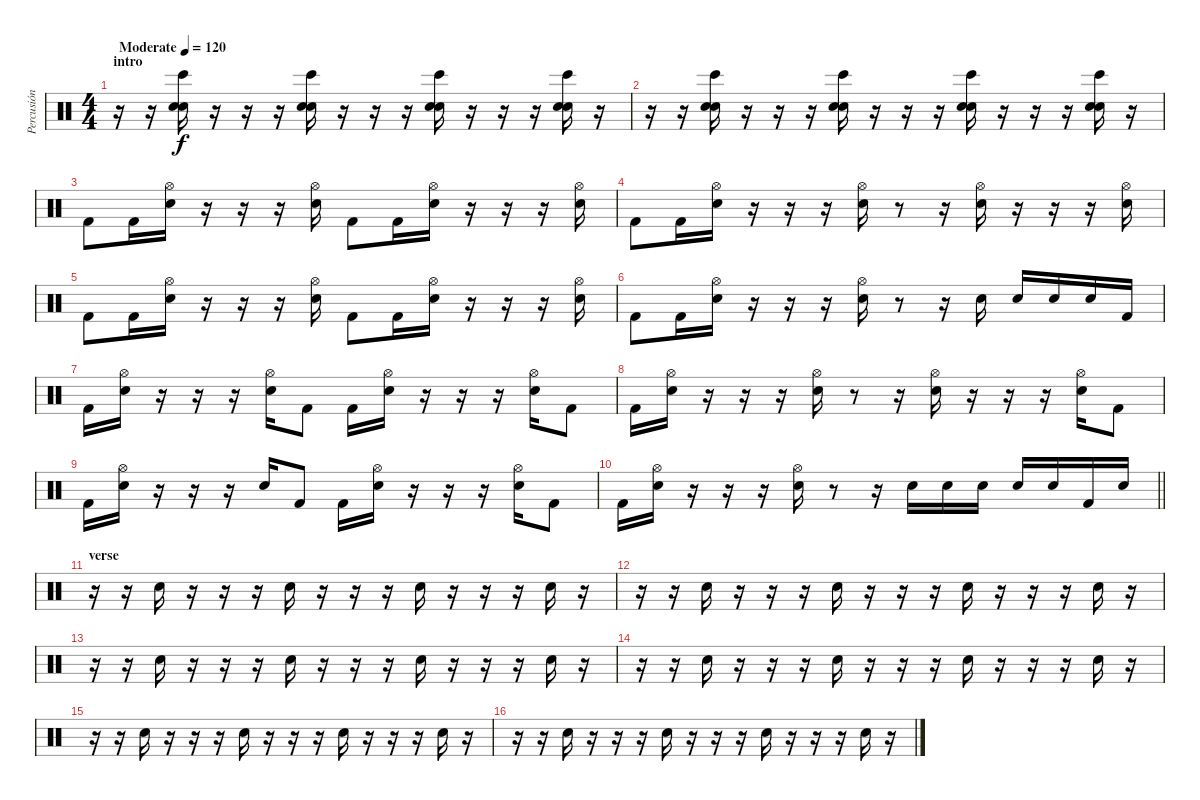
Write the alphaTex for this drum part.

\track ("Percusión" "Percusión") {instrument percussion}
\staff {score}
\articulation defaults
\ts (4 4)
\section ("" "intro")
\tempo (120 "Moderate")
\clef neutral
\ks c
r.16{dy f} r.16 ("Bongo High (hit)" "Hand Clap (hit)" "Electric Snare (hit)").16 r.16 r.16 r.16 ("Bongo High (hit)" "Hand Clap (hit)" "Electric Snare (hit)").16 r.16 r.16 r.16 ("Bongo High (hit)" "Hand Clap (hit)" "Electric Snare (hit)").16 r.16 r.16 r.16 ("Bongo High (hit)" "Hand Clap (hit)" "Electric Snare (hit)").16 r.16 |
r.16 r.16 ("Bongo High (hit)" "Hand Clap (hit)" "Electric Snare (hit)").16 r.16 r.16 r.16 ("Bongo High (hit)" "Hand Clap (hit)" "Electric Snare (hit)").16 r.16 r.16 r.16 ("Bongo High (hit)" "Hand Clap (hit)" "Electric Snare (hit)").16 r.16 r.16 r.16 ("Bongo High (hit)" "Hand Clap (hit)" "Electric Snare (hit)").16 r.16 |
"Kick (hit) 2".8 "Kick (hit) 2".16 ("Hi-Hat (open)" "Electric Snare (hit)").16 r.16 r.16 r.16 ("Hi-Hat (open)" "Electric Snare (hit)").16 "Kick (hit) 2".8 "Kick (hit) 2".16 ("Hi-Hat (open)" "Electric Snare (hit)").16 r.16 r.16 r.16 ("Hi-Hat (open)" "Electric Snare (hit)").16 |
"Kick (hit) 2".8 "Kick (hit) 2".16 ("Hi-Hat (open)" "Electric Snare (hit)").16 r.16 r.16 r.16 ("Hi-Hat (open)" "Electric Snare (hit)").16 r.8 r.16 ("Hi-Hat (open)" "Electric Snare (hit)").16 r.16 r.16 r.16 ("Hi-Hat (open)" "Electric Snare (hit)").16 |
"Kick (hit) 2".8 "Kick (hit) 2".16 ("Hi-Hat (open)" "Electric Snare (hit)").16 r.16 r.16 r.16 ("Hi-Hat (open)" "Electric Snare (hit)").16 "Kick (hit) 2".8 "Kick (hit) 2".16 ("Hi-Hat (open)" "Electric Snare (hit)").16 r.16 r.16 r.16 ("Hi-Hat (open)" "Electric Snare (hit)").16 |
"Kick (hit) 2".8 "Kick (hit) 2".16 ("Hi-Hat (open)" "Electric Snare (hit)").16 r.16 r.16 r.16 ("Hi-Hat (open)" "Electric Snare (hit)").16 r.8 r.16 "Electric Snare (hit)".16 "Electric Snare (hit)".16 "Electric Snare (hit)".16 "Electric Snare (hit)".16 "Kick (hit) 2".16 |
"Kick (hit) 2".16 ("Hi-Hat (open)" "Electric Snare (hit)").16 r.16 r.16 r.16 ("Hi-Hat (open)" "Electric Snare (hit)").16 "Kick (hit) 2".8 "Kick (hit) 2".16 ("Hi-Hat (open)" "Electric Snare (hit)").16 r.16 r.16 r.16 ("Hi-Hat (open)" "Electric Snare (hit)").16 "Kick (hit) 2".8 |
"Kick (hit) 2".16 ("Hi-Hat (open)" "Electric Snare (hit)").16 r.16 r.16 r.16 ("Hi-Hat (open)" "Electric Snare (hit)").16 r.8 r.16 ("Hi-Hat (open)" "Electric Snare (hit)").16 r.16 r.16 r.16 ("Hi-Hat (open)" "Electric Snare (hit)").16 "Kick (hit) 2".8 |
"Kick (hit) 2".16 ("Hi-Hat (open)" "Electric Snare (hit)").16 r.16 r.16 r.16 "Electric Snare (hit)".16 "Kick (hit) 2".8 "Kick (hit) 2".16 ("Hi-Hat (open)" "Electric Snare (hit)").16 r.16 r.16 r.16 ("Hi-Hat (open)" "Electric Snare (hit)").16 "Kick (hit) 2".8 |
\barLineRight lightlight "Kick (hit) 2".16
("Hi-Hat (open)" "Electric Snare (hit)").16 r.16 r.16 r.16 ("Hi-Hat (open)" "Electric Snare (hit)").16 r.8 r.16 "Electric Snare (hit)".16 "Electric Snare (hit)".16 "Electric Snare (hit)".16 "Electric Snare (hit)".16 "Electric Snare (hit)".16 "Kick (hit) 2".16 "Electric Snare (hit)".16 |
\section ("" "verse")
r.16 r.16 "Electric Snare (hit)".16 r.16 r.16 r.16 "Electric Snare (hit)".16 r.16 r.16 r.16 "Electric Snare (hit)".16 r.16 r.16 r.16 "Electric Snare (hit)".16 r.16 |
r.16 r.16 "Electric Snare (hit)".16 r.16 r.16 r.16 "Electric Snare (hit)".16 r.16 r.16 r.16 "Electric Snare (hit)".16 r.16 r.16 r.16 "Electric Snare (hit)".16 r.16 |
r.16 r.16 "Electric Snare (hit)".16 r.16 r.16 r.16 "Electric Snare (hit)".16 r.16 r.16 r.16 "Electric Snare (hit)".16 r.16 r.16 r.16 "Electric Snare (hit)".16 r.16 |
r.16 r.16 "Electric Snare (hit)".16 r.16 r.16 r.16 "Electric Snare (hit)".16 r.16 r.16 r.16 "Electric Snare (hit)".16 r.16 r.16 r.16 "Electric Snare (hit)".16 r.16 |
r.16 r.16 "Electric Snare (hit)".16 r.16 r.16 r.16 "Electric Snare (hit)".16 r.16 r.16 r.16 "Electric Snare (hit)".16 r.16 r.16 r.16 "Electric Snare (hit)".16 r.16 |
r.16 r.16 "Electric Snare (hit)".16 r.16 r.16 r.16 "Electric Snare (hit)".16 r.16 r.16 r.16 "Electric Snare (hit)".16 r.16 r.16 r.16 "Electric Snare (hit)".16 r.16
